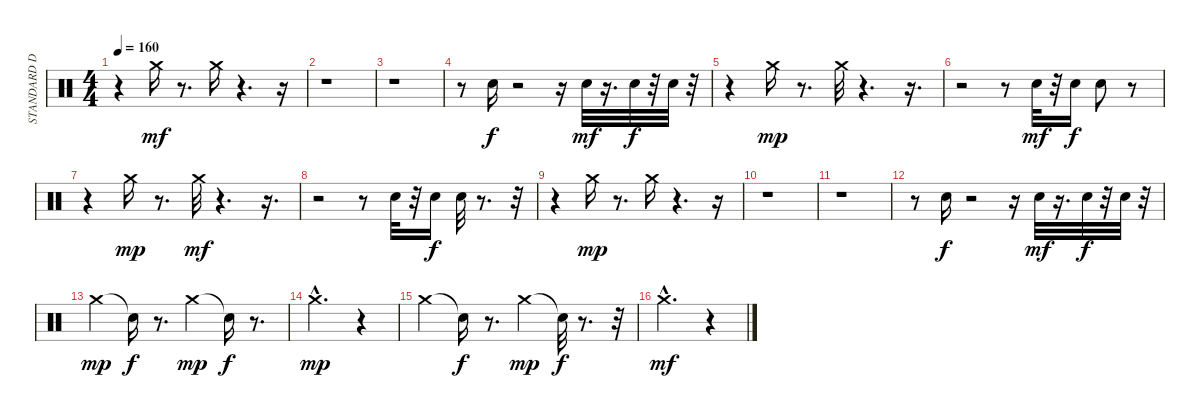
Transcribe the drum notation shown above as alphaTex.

\track ("STANDARD DRUMS" "STANDARD D") {instrument percussion}
\staff {score}
\articulation defaults
\ts (4 4)
\tempo 160
\clef neutral
\ks c
r.4{dy f} "Crash medium (hit)".16{dy mf} r.8{d} "Crash medium (hit)".16 r.4{d} r.16 |
r.1 |
r.1 |
r.8 "Electric Snare (hit)".16{dy f} r.2 r.16 "Electric Snare (hit)".32{dy mf} r.16{d} "Electric Snare (hit)".32{dy f} r.32 "Electric Snare (hit)".32 r.32 |
r.4 "Crash medium (hit)".16{dy mp} r.8{d} "Crash medium (hit)".32 r.4{d} r.16{d} |
r.2 r.8 "Electric Snare (hit)".32{dy mf} r.32 "Electric Snare (hit)".16{dy f} "Electric Snare (hit)".8 r.8 |
r.4 "Crash medium (hit)".16{dy mp} r.8{d} "Crash medium (hit)".32{dy mf} r.4{d} r.16{d} |
r.2 r.8 "Electric Snare (hit)".32 r.32 "Electric Snare (hit)".16{dy f} "Electric Snare (hit)".32 r.8{d} r.32 |
r.4 "Crash medium (hit)".16{dy mp} r.8{d} "Crash medium (hit)".16 r.4{d} r.16 |
r.1 |
r.1 |
r.8 "Electric Snare (hit)".16{dy f} r.2 r.16 "Electric Snare (hit)".32{dy mf} r.16{d} "Electric Snare (hit)".32{dy f} r.32 "Electric Snare (hit)".32 r.32 |
"Crash medium (hit)".4{dy mp} "Snare (hit)"{t}.16{dy f} r.8{d} "Crash medium (hit)".4{dy mp} "Snare (hit)"{t}.16{dy f} r.8{d} |
"Crash medium (hit)"{hac}.2{d dy mp} r.4 |
"Crash medium (hit)".4 "Snare (hit)"{t}.16{dy f} r.8{d} "Crash medium (hit)".4{dy mp} "Snare (hit)"{t}.32{dy f} r.8{d} r.32 |
"Crash medium (hit)"{hac}.2{d dy mf} r.4
